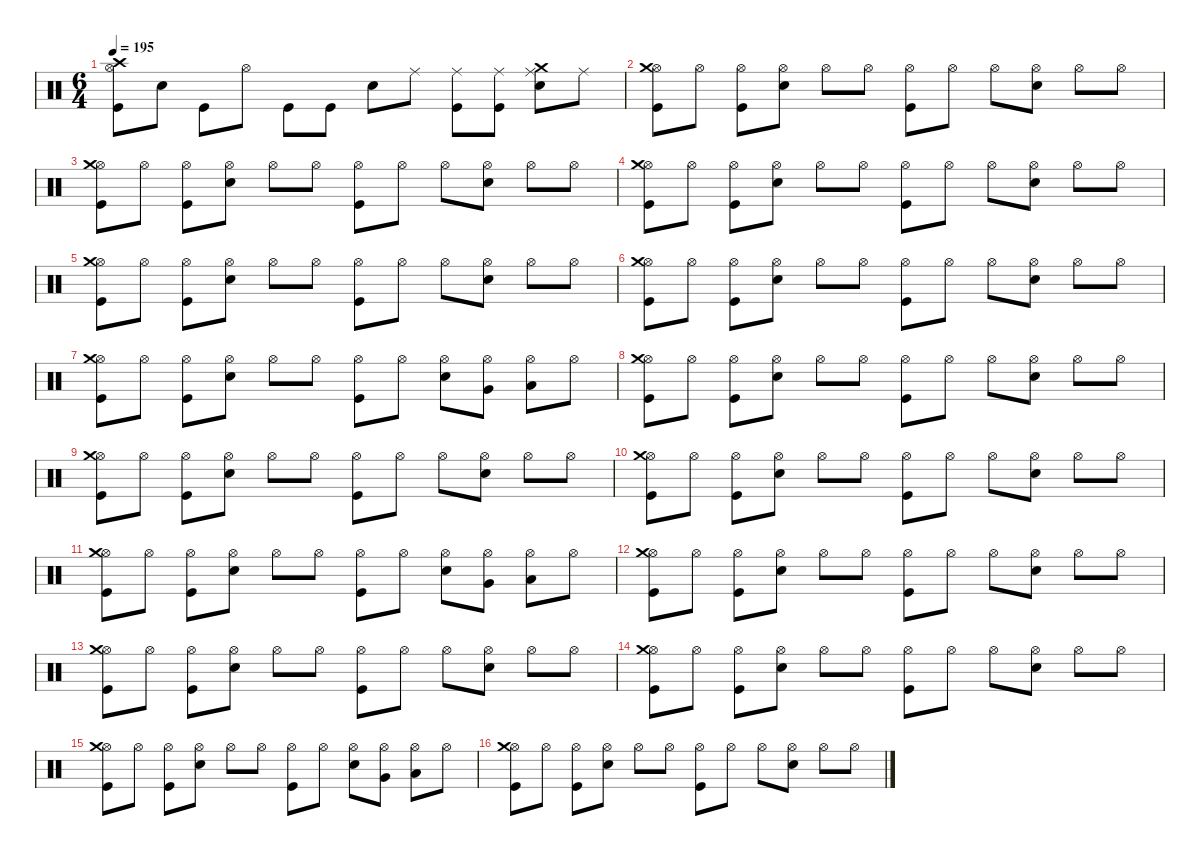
\defaultSystemsLayout 4
\hideDynamics
\bracketExtendMode nobrackets
\singleTrackTrackNamePolicy hidden
\multiTrackTrackNamePolicy hidden
\firstSystemTrackNameMode fullname
\firstSystemTrackNameOrientation horizontal
\otherSystemsTrackNameOrientation horizontal
\track ("Percussion" "drm.") {instrument percussion}
\staff {score}
\articulation defaults
\ts (6 4)
\tempo 195
\clef neutral
\ks c
("Crash high (hit)" "Hi-Hat (open)" "Kick (hit)").8{dy f beam Down} "Snare (hit) 2".8{beam Down} "Kick (hit)".8{beam Down} "Hi-Hat (open)".8{beam Down} "Kick (hit)".8{beam Down} "Kick (hit)".8{beam Down} "Snare (hit) 2".8{beam Down} "Ride (middle)".8{beam Down} ("Ride (middle)" "Kick (hit)").8{beam Down} ("Ride (middle)" "Kick (hit)").8{beam Down} ("Crash medium (hit)" "Ride (middle)" "Snare (hit) 2").8{beam Down} "Ride (middle)".8{beam Down} |
("Hi-Hat (open)" "Crash medium (hit)" "Kick (hit)").8{beam Down} "Hi-Hat (open)".8{beam Down} ("Hi-Hat (open)" "Kick (hit)").8{beam Down} ("Hi-Hat (open)" "Snare (hit) 2").8{beam Down} "Hi-Hat (open)".8{beam Down} "Hi-Hat (open)".8{beam Down} ("Hi-Hat (open)" "Kick (hit)").8{beam Down} "Hi-Hat (open)".8{beam Down} "Hi-Hat (open)".8{beam Down} ("Hi-Hat (open)" "Snare (hit) 2").8{beam Down} "Hi-Hat (open)".8{beam Down} "Hi-Hat (open)".8{beam Down} |
("Hi-Hat (open)" "Crash medium (hit)" "Kick (hit)").8{beam Down} "Hi-Hat (open)".8{beam Down} ("Hi-Hat (open)" "Kick (hit)").8{beam Down} ("Hi-Hat (open)" "Snare (hit) 2").8{beam Down} "Hi-Hat (open)".8{beam Down} "Hi-Hat (open)".8{beam Down} ("Hi-Hat (open)" "Kick (hit)").8{beam Down} "Hi-Hat (open)".8{beam Down} "Hi-Hat (open)".8{beam Down} ("Hi-Hat (open)" "Snare (hit) 2").8{beam Down} "Hi-Hat (open)".8{beam Down} "Hi-Hat (open)".8{beam Down} |
("Hi-Hat (open)" "Crash medium (hit)" "Kick (hit)").8{beam Down} "Hi-Hat (open)".8{beam Down} ("Hi-Hat (open)" "Kick (hit)").8{beam Down} ("Hi-Hat (open)" "Snare (hit) 2").8{beam Down} "Hi-Hat (open)".8{beam Down} "Hi-Hat (open)".8{beam Down} ("Hi-Hat (open)" "Kick (hit)").8{beam Down} "Hi-Hat (open)".8{beam Down} "Hi-Hat (open)".8{beam Down} ("Hi-Hat (open)" "Snare (hit) 2").8{beam Down} "Hi-Hat (open)".8{beam Down} "Hi-Hat (open)".8{beam Down} |
("Hi-Hat (open)" "Crash medium (hit)" "Kick (hit)").8{beam Down} "Hi-Hat (open)".8{beam Down} ("Hi-Hat (open)" "Kick (hit)").8{beam Down} ("Hi-Hat (open)" "Snare (hit) 2").8{beam Down} "Hi-Hat (open)".8{beam Down} "Hi-Hat (open)".8{beam Down} ("Hi-Hat (open)" "Kick (hit)").8{beam Down} "Hi-Hat (open)".8{beam Down} "Hi-Hat (open)".8{beam Down} ("Hi-Hat (open)" "Snare (hit) 2").8{beam Down} "Hi-Hat (open)".8{beam Down} "Hi-Hat (open)".8{beam Down} |
("Hi-Hat (open)" "Crash medium (hit)" "Kick (hit)").8{beam Down} "Hi-Hat (open)".8{beam Down} ("Hi-Hat (open)" "Kick (hit)").8{beam Down} ("Hi-Hat (open)" "Snare (hit) 2").8{beam Down} "Hi-Hat (open)".8{beam Down} "Hi-Hat (open)".8{beam Down} ("Hi-Hat (open)" "Kick (hit)").8{beam Down} "Hi-Hat (open)".8{beam Down} "Hi-Hat (open)".8{beam Down} ("Hi-Hat (open)" "Snare (hit) 2").8{beam Down} "Hi-Hat (open)".8{beam Down} "Hi-Hat (open)".8{beam Down} |
("Hi-Hat (open)" "Crash medium (hit)" "Kick (hit)").8{beam Down} "Hi-Hat (open)".8{beam Down} ("Hi-Hat (open)" "Kick (hit)").8{beam Down} ("Hi-Hat (open)" "Snare (hit) 2").8{beam Down} "Hi-Hat (open)".8{beam Down} "Hi-Hat (open)".8{beam Down} ("Hi-Hat (open)" "Kick (hit)").8{beam Down} "Hi-Hat (open)".8{beam Down} ("Hi-Hat (open)" "Snare (hit) 2").8{beam Down} ("Hi-Hat (open)" "Very Low Tom (hit)").8{beam Down} ("Hi-Hat (open)" "Low Floor Tom (hit)").8{beam Down} "Hi-Hat (open)".8{beam Down} |
("Hi-Hat (open)" "Crash medium (hit)" "Kick (hit)").8{beam Down} "Hi-Hat (open)".8{beam Down} ("Hi-Hat (open)" "Kick (hit)").8{beam Down} ("Hi-Hat (open)" "Snare (hit) 2").8{beam Down} "Hi-Hat (open)".8{beam Down} "Hi-Hat (open)".8{beam Down} ("Hi-Hat (open)" "Kick (hit)").8{beam Down} "Hi-Hat (open)".8{beam Down} "Hi-Hat (open)".8{beam Down} ("Hi-Hat (open)" "Snare (hit) 2").8{beam Down} "Hi-Hat (open)".8{beam Down} "Hi-Hat (open)".8{beam Down} |
("Hi-Hat (open)" "Crash medium (hit)" "Kick (hit)").8{beam Down} "Hi-Hat (open)".8{beam Down} ("Hi-Hat (open)" "Kick (hit)").8{beam Down} ("Hi-Hat (open)" "Snare (hit) 2").8{beam Down} "Hi-Hat (open)".8{beam Down} "Hi-Hat (open)".8{beam Down} ("Hi-Hat (open)" "Kick (hit)").8{beam Down} "Hi-Hat (open)".8{beam Down} "Hi-Hat (open)".8{beam Down} ("Hi-Hat (open)" "Snare (hit) 2").8{beam Down} "Hi-Hat (open)".8{beam Down} "Hi-Hat (open)".8{beam Down} |
("Hi-Hat (open)" "Crash medium (hit)" "Kick (hit)").8{beam Down} "Hi-Hat (open)".8{beam Down} ("Hi-Hat (open)" "Kick (hit)").8{beam Down} ("Hi-Hat (open)" "Snare (hit) 2").8{beam Down} "Hi-Hat (open)".8{beam Down} "Hi-Hat (open)".8{beam Down} ("Hi-Hat (open)" "Kick (hit)").8{beam Down} "Hi-Hat (open)".8{beam Down} "Hi-Hat (open)".8{beam Down} ("Hi-Hat (open)" "Snare (hit) 2").8{beam Down} "Hi-Hat (open)".8{beam Down} "Hi-Hat (open)".8{beam Down} |
("Hi-Hat (open)" "Crash medium (hit)" "Kick (hit)").8{beam Down} "Hi-Hat (open)".8{beam Down} ("Hi-Hat (open)" "Kick (hit)").8{beam Down} ("Hi-Hat (open)" "Snare (hit) 2").8{beam Down} "Hi-Hat (open)".8{beam Down} "Hi-Hat (open)".8{beam Down} ("Hi-Hat (open)" "Kick (hit)").8{beam Down} "Hi-Hat (open)".8{beam Down} ("Hi-Hat (open)" "Snare (hit) 2").8{beam Down} ("Hi-Hat (open)" "Very Low Tom (hit)").8{beam Down} ("Hi-Hat (open)" "Low Floor Tom (hit)").8{beam Down} "Hi-Hat (open)".8{beam Down} |
("Hi-Hat (open)" "Crash medium (hit)" "Kick (hit)").8{beam Down} "Hi-Hat (open)".8{beam Down} ("Hi-Hat (open)" "Kick (hit)").8{beam Down} ("Hi-Hat (open)" "Snare (hit) 2").8{beam Down} "Hi-Hat (open)".8{beam Down} "Hi-Hat (open)".8{beam Down} ("Hi-Hat (open)" "Kick (hit)").8{beam Down} "Hi-Hat (open)".8{beam Down} "Hi-Hat (open)".8{beam Down} ("Hi-Hat (open)" "Snare (hit) 2").8{beam Down} "Hi-Hat (open)".8{beam Down} "Hi-Hat (open)".8{beam Down} |
("Hi-Hat (open)" "Crash medium (hit)" "Kick (hit)").8{beam Down} "Hi-Hat (open)".8{beam Down} ("Hi-Hat (open)" "Kick (hit)").8{beam Down} ("Hi-Hat (open)" "Snare (hit) 2").8{beam Down} "Hi-Hat (open)".8{beam Down} "Hi-Hat (open)".8{beam Down} ("Hi-Hat (open)" "Kick (hit)").8{beam Down} "Hi-Hat (open)".8{beam Down} "Hi-Hat (open)".8{beam Down} ("Hi-Hat (open)" "Snare (hit) 2").8{beam Down} "Hi-Hat (open)".8{beam Down} "Hi-Hat (open)".8{beam Down} |
("Hi-Hat (open)" "Crash medium (hit)" "Kick (hit)").8{beam Down} "Hi-Hat (open)".8{beam Down} ("Hi-Hat (open)" "Kick (hit)").8{beam Down} ("Hi-Hat (open)" "Snare (hit) 2").8{beam Down} "Hi-Hat (open)".8{beam Down} "Hi-Hat (open)".8{beam Down} ("Hi-Hat (open)" "Kick (hit)").8{beam Down} "Hi-Hat (open)".8{beam Down} "Hi-Hat (open)".8{beam Down} ("Hi-Hat (open)" "Snare (hit) 2").8{beam Down} "Hi-Hat (open)".8{beam Down} "Hi-Hat (open)".8{beam Down} |
("Hi-Hat (open)" "Crash medium (hit)" "Kick (hit)").8{beam Down} "Hi-Hat (open)".8{beam Down} ("Hi-Hat (open)" "Kick (hit)").8{beam Down} ("Hi-Hat (open)" "Snare (hit) 2").8{beam Down} "Hi-Hat (open)".8{beam Down} "Hi-Hat (open)".8{beam Down} ("Hi-Hat (open)" "Kick (hit)").8{beam Down} "Hi-Hat (open)".8{beam Down} ("Hi-Hat (open)" "Snare (hit) 2").8{beam Down} ("Hi-Hat (open)" "Very Low Tom (hit)").8{beam Down} ("Hi-Hat (open)" "Low Floor Tom (hit)").8{beam Down} "Hi-Hat (open)".8{beam Down} |
("Hi-Hat (open)" "Crash medium (hit)" "Kick (hit)").8{beam Down} "Hi-Hat (open)".8{beam Down} ("Hi-Hat (open)" "Kick (hit)").8{beam Down} ("Hi-Hat (open)" "Snare (hit) 2").8{beam Down} "Hi-Hat (open)".8{beam Down} "Hi-Hat (open)".8{beam Down} ("Hi-Hat (open)" "Kick (hit)").8{beam Down} "Hi-Hat (open)".8{beam Down} "Hi-Hat (open)".8{beam Down} ("Hi-Hat (open)" "Snare (hit) 2").8{beam Down} "Hi-Hat (open)".8{beam Down} "Hi-Hat (open)".8{beam Down}
